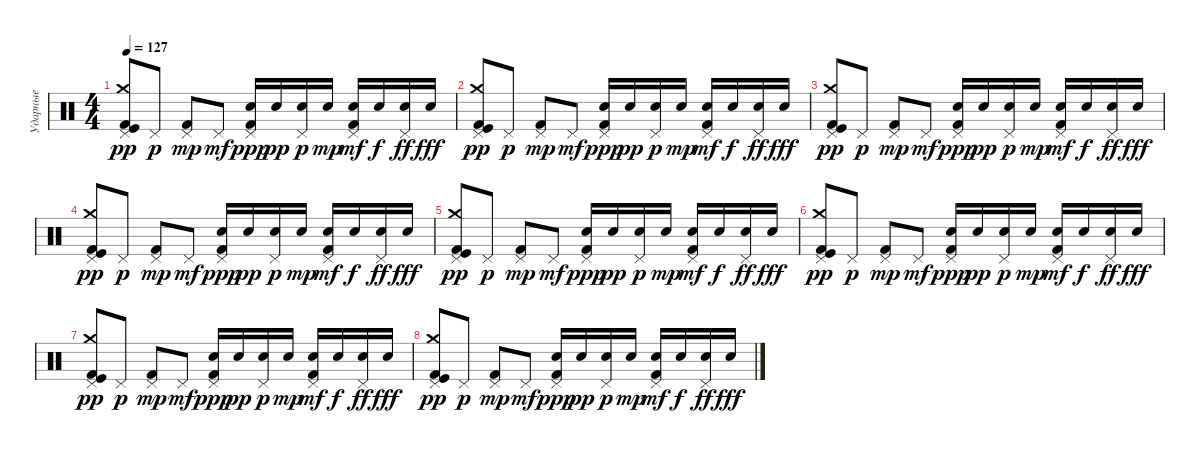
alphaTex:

\track ("Ударные" "Ударные") {instrument percussion}
\staff {score}
\articulation defaults
\ts (4 4)
\tempo 127
\clef neutral
\ks c
("Kick (hit) 2" "Pedal Hi-Hat (hit)" "Crash medium (hit)" "Kick (hit)").8{dy pp} "Pedal Hi-Hat (hit)".8{dy p} ("Kick (hit) 2" "Pedal Hi-Hat (hit)").8{dy mp} "Pedal Hi-Hat (hit)".8{dy mf} ("Kick (hit) 2" "Pedal Hi-Hat (hit)" "Electric Snare (hit)").16{dy ppp} "Electric Snare (hit)".16{dy pp} ("Pedal Hi-Hat (hit)" "Electric Snare (hit)").16{dy p} "Electric Snare (hit)".16{dy mp} ("Kick (hit) 2" "Pedal Hi-Hat (hit)" "Electric Snare (hit)").16{dy mf} "Electric Snare (hit)".16{dy f} ("Pedal Hi-Hat (hit)" "Electric Snare (hit)").16{dy ff} "Electric Snare (hit)".16{dy fff} |
("Kick (hit) 2" "Pedal Hi-Hat (hit)" "Crash medium (hit)" "Kick (hit)").8{dy pp} "Pedal Hi-Hat (hit)".8{dy p} ("Kick (hit) 2" "Pedal Hi-Hat (hit)").8{dy mp} "Pedal Hi-Hat (hit)".8{dy mf} ("Kick (hit) 2" "Pedal Hi-Hat (hit)" "Electric Snare (hit)").16{dy ppp} "Electric Snare (hit)".16{dy pp} ("Pedal Hi-Hat (hit)" "Electric Snare (hit)").16{dy p} "Electric Snare (hit)".16{dy mp} ("Kick (hit) 2" "Pedal Hi-Hat (hit)" "Electric Snare (hit)").16{dy mf} "Electric Snare (hit)".16{dy f} ("Pedal Hi-Hat (hit)" "Electric Snare (hit)").16{dy ff} "Electric Snare (hit)".16{dy fff} |
("Kick (hit) 2" "Pedal Hi-Hat (hit)" "Crash medium (hit)" "Kick (hit)").8{dy pp} "Pedal Hi-Hat (hit)".8{dy p} ("Kick (hit) 2" "Pedal Hi-Hat (hit)").8{dy mp} "Pedal Hi-Hat (hit)".8{dy mf} ("Kick (hit) 2" "Pedal Hi-Hat (hit)" "Electric Snare (hit)").16{dy ppp} "Electric Snare (hit)".16{dy pp} ("Pedal Hi-Hat (hit)" "Electric Snare (hit)").16{dy p} "Electric Snare (hit)".16{dy mp} ("Kick (hit) 2" "Pedal Hi-Hat (hit)" "Electric Snare (hit)").16{dy mf} "Electric Snare (hit)".16{dy f} ("Pedal Hi-Hat (hit)" "Electric Snare (hit)").16{dy ff} "Electric Snare (hit)".16{dy fff} |
("Kick (hit) 2" "Pedal Hi-Hat (hit)" "Crash medium (hit)" "Kick (hit)").8{dy pp} "Pedal Hi-Hat (hit)".8{dy p} ("Kick (hit) 2" "Pedal Hi-Hat (hit)").8{dy mp} "Pedal Hi-Hat (hit)".8{dy mf} ("Kick (hit) 2" "Pedal Hi-Hat (hit)" "Electric Snare (hit)").16{dy ppp} "Electric Snare (hit)".16{dy pp} ("Pedal Hi-Hat (hit)" "Electric Snare (hit)").16{dy p} "Electric Snare (hit)".16{dy mp} ("Kick (hit) 2" "Pedal Hi-Hat (hit)" "Electric Snare (hit)").16{dy mf} "Electric Snare (hit)".16{dy f} ("Pedal Hi-Hat (hit)" "Electric Snare (hit)").16{dy ff} "Electric Snare (hit)".16{dy fff} |
("Kick (hit) 2" "Pedal Hi-Hat (hit)" "Crash medium (hit)" "Kick (hit)").8{dy pp} "Pedal Hi-Hat (hit)".8{dy p} ("Kick (hit) 2" "Pedal Hi-Hat (hit)").8{dy mp} "Pedal Hi-Hat (hit)".8{dy mf} ("Kick (hit) 2" "Pedal Hi-Hat (hit)" "Electric Snare (hit)").16{dy ppp} "Electric Snare (hit)".16{dy pp} ("Pedal Hi-Hat (hit)" "Electric Snare (hit)").16{dy p} "Electric Snare (hit)".16{dy mp} ("Kick (hit) 2" "Pedal Hi-Hat (hit)" "Electric Snare (hit)").16{dy mf} "Electric Snare (hit)".16{dy f} ("Pedal Hi-Hat (hit)" "Electric Snare (hit)").16{dy ff} "Electric Snare (hit)".16{dy fff} |
("Kick (hit) 2" "Pedal Hi-Hat (hit)" "Crash medium (hit)" "Kick (hit)").8{dy pp} "Pedal Hi-Hat (hit)".8{dy p} ("Kick (hit) 2" "Pedal Hi-Hat (hit)").8{dy mp} "Pedal Hi-Hat (hit)".8{dy mf} ("Kick (hit) 2" "Pedal Hi-Hat (hit)" "Electric Snare (hit)").16{dy ppp} "Electric Snare (hit)".16{dy pp} ("Pedal Hi-Hat (hit)" "Electric Snare (hit)").16{dy p} "Electric Snare (hit)".16{dy mp} ("Kick (hit) 2" "Pedal Hi-Hat (hit)" "Electric Snare (hit)").16{dy mf} "Electric Snare (hit)".16{dy f} ("Pedal Hi-Hat (hit)" "Electric Snare (hit)").16{dy ff} "Electric Snare (hit)".16{dy fff} |
("Kick (hit) 2" "Pedal Hi-Hat (hit)" "Crash medium (hit)" "Kick (hit)").8{dy pp} "Pedal Hi-Hat (hit)".8{dy p} ("Kick (hit) 2" "Pedal Hi-Hat (hit)").8{dy mp} "Pedal Hi-Hat (hit)".8{dy mf} ("Kick (hit) 2" "Pedal Hi-Hat (hit)" "Electric Snare (hit)").16{dy ppp} "Electric Snare (hit)".16{dy pp} ("Pedal Hi-Hat (hit)" "Electric Snare (hit)").16{dy p} "Electric Snare (hit)".16{dy mp} ("Kick (hit) 2" "Pedal Hi-Hat (hit)" "Electric Snare (hit)").16{dy mf} "Electric Snare (hit)".16{dy f} ("Pedal Hi-Hat (hit)" "Electric Snare (hit)").16{dy ff} "Electric Snare (hit)".16{dy fff} |
("Kick (hit) 2" "Pedal Hi-Hat (hit)" "Crash medium (hit)" "Kick (hit)").8{dy pp} "Pedal Hi-Hat (hit)".8{dy p} ("Kick (hit) 2" "Pedal Hi-Hat (hit)").8{dy mp} "Pedal Hi-Hat (hit)".8{dy mf} ("Kick (hit) 2" "Pedal Hi-Hat (hit)" "Electric Snare (hit)").16{dy ppp} "Electric Snare (hit)".16{dy pp} ("Pedal Hi-Hat (hit)" "Electric Snare (hit)").16{dy p} "Electric Snare (hit)".16{dy mp} ("Kick (hit) 2" "Pedal Hi-Hat (hit)" "Electric Snare (hit)").16{dy mf} "Electric Snare (hit)".16{dy f} ("Pedal Hi-Hat (hit)" "Electric Snare (hit)").16{dy ff} "Electric Snare (hit)".16{dy fff}
